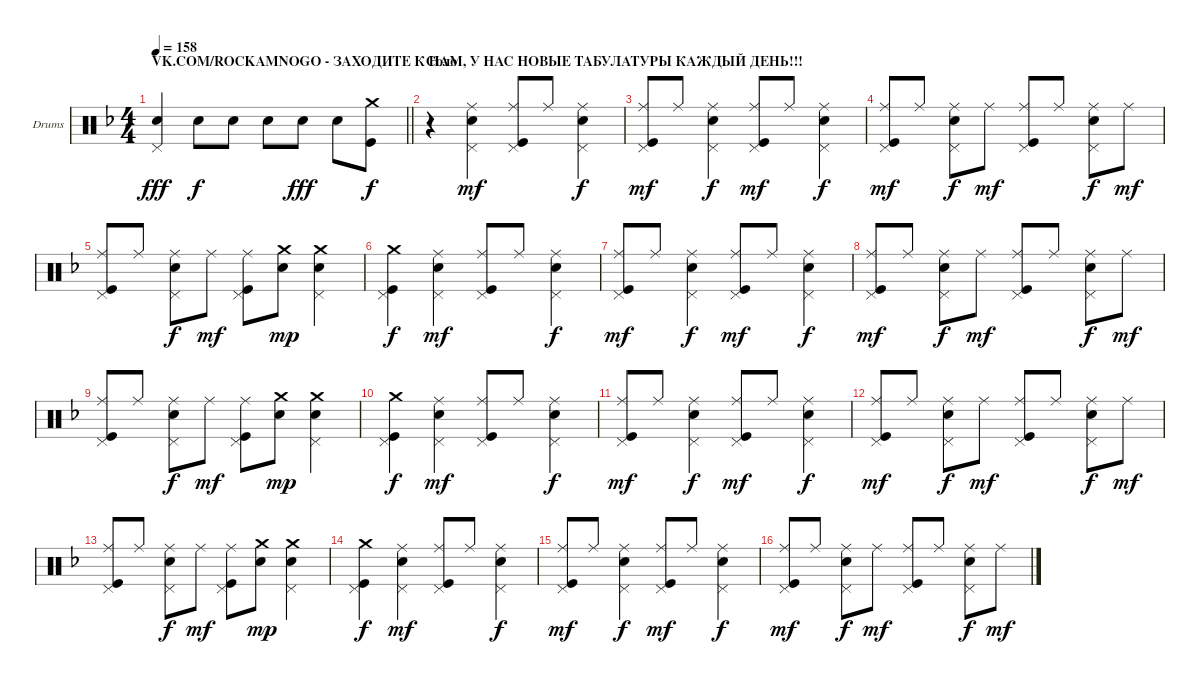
\bracketExtendMode groupsimilarinstruments
\firstSystemTrackNameOrientation horizontal
\otherSystemsTrackNameOrientation horizontal
\track ("Максим Удалов" "Drums") {instrument percussion}
\staff {score}
\articulation defaults
\ts (4 4)
\beaming (8 2 2 2 2)
\section ("" "VK.COM/ROCKAMNOGO - ЗАХОДИТЕ К НАМ, У НАС НОВЫЕ ТАБУЛАТУРЫ КАЖДЫЙ ДЕНЬ!!!")
\tempo 158
\clef neutral
\barLineRight lightlight
\ks dminor
("Snare (hit) 2" "Pedal Hi-Hat (hit)").4{dy fff} "Snare (hit) 2".8{dy f} "Snare (hit) 2".8 "Snare (hit) 2".8 "Snare (hit) 2".8{dy fff} "Snare (hit) 2".8 ("Kick (hit)" "Crash medium (hit)").8{dy f} |
\section ("" "Соло")
r.4 ("Ride (middle)" "Snare (hit) 2" "Pedal Hi-Hat (hit)").4{dy mf} ("Ride (middle)" "Kick (hit)" "Pedal Hi-Hat (hit)").8 "Ride (middle)".8 ("Snare (hit) 2" "Pedal Hi-Hat (hit)" "Ride (middle)").4{dy f} |
("Ride (middle)" "Kick (hit)" "Pedal Hi-Hat (hit)").8{dy mf} "Ride (middle)".8 ("Snare (hit) 2" "Pedal Hi-Hat (hit)" "Ride (middle)").4{dy f} ("Ride (middle)" "Kick (hit)" "Pedal Hi-Hat (hit)").8{dy mf} "Ride (middle)".8 ("Snare (hit) 2" "Pedal Hi-Hat (hit)" "Ride (middle)").4{dy f} |
("Ride (middle)" "Kick (hit)" "Pedal Hi-Hat (hit)").8{dy mf} "Ride (middle)".8 ("Snare (hit) 2" "Pedal Hi-Hat (hit)" "Ride (middle)").8{dy f} "Ride (middle)".8{dy mf} ("Ride (middle)" "Kick (hit)" "Pedal Hi-Hat (hit)").8 "Ride (middle)".8 ("Snare (hit) 2" "Pedal Hi-Hat (hit)" "Ride (middle)").8{dy f} "Ride (middle)".8{dy mf} |
("Ride (middle)" "Kick (hit)" "Pedal Hi-Hat (hit)").8 "Ride (middle)".8 ("Snare (hit) 2" "Pedal Hi-Hat (hit)" "Ride (middle)").8{dy f} "Ride (middle)".8{dy mf} ("Ride (middle)" "Kick (hit)" "Pedal Hi-Hat (hit)").8 ("Crash medium (hit)" "Snare (hit) 2").8{dy mp} ("Crash medium (hit)" "Snare (hit) 2" "Pedal Hi-Hat (hit)").4 |
("Kick (hit)" "Crash medium (hit)" "Pedal Hi-Hat (hit)").4{dy f} ("Ride (middle)" "Snare (hit) 2" "Pedal Hi-Hat (hit)").4{dy mf} ("Ride (middle)" "Kick (hit)" "Pedal Hi-Hat (hit)").8 "Ride (middle)".8 ("Snare (hit) 2" "Pedal Hi-Hat (hit)" "Ride (middle)").4{dy f} |
("Ride (middle)" "Kick (hit)" "Pedal Hi-Hat (hit)").8{dy mf} "Ride (middle)".8 ("Snare (hit) 2" "Pedal Hi-Hat (hit)" "Ride (middle)").4{dy f} ("Ride (middle)" "Kick (hit)" "Pedal Hi-Hat (hit)").8{dy mf} "Ride (middle)".8 ("Snare (hit) 2" "Pedal Hi-Hat (hit)" "Ride (middle)").4{dy f} |
("Ride (middle)" "Kick (hit)" "Pedal Hi-Hat (hit)").8{dy mf} "Ride (middle)".8 ("Snare (hit) 2" "Pedal Hi-Hat (hit)" "Ride (middle)").8{dy f} "Ride (middle)".8{dy mf} ("Ride (middle)" "Kick (hit)" "Pedal Hi-Hat (hit)").8 "Ride (middle)".8 ("Snare (hit) 2" "Pedal Hi-Hat (hit)" "Ride (middle)").8{dy f} "Ride (middle)".8{dy mf} |
("Ride (middle)" "Kick (hit)" "Pedal Hi-Hat (hit)").8 "Ride (middle)".8 ("Snare (hit) 2" "Pedal Hi-Hat (hit)" "Ride (middle)").8{dy f} "Ride (middle)".8{dy mf} ("Ride (middle)" "Kick (hit)" "Pedal Hi-Hat (hit)").8 ("Crash medium (hit)" "Snare (hit) 2").8{dy mp} ("Crash medium (hit)" "Snare (hit) 2" "Pedal Hi-Hat (hit)").4 |
("Kick (hit)" "Crash medium (hit)" "Pedal Hi-Hat (hit)").4{dy f} ("Ride (middle)" "Snare (hit) 2" "Pedal Hi-Hat (hit)").4{dy mf} ("Ride (middle)" "Kick (hit)" "Pedal Hi-Hat (hit)").8 "Ride (middle)".8 ("Snare (hit) 2" "Pedal Hi-Hat (hit)" "Ride (middle)").4{dy f} |
("Ride (middle)" "Kick (hit)" "Pedal Hi-Hat (hit)").8{dy mf} "Ride (middle)".8 ("Snare (hit) 2" "Pedal Hi-Hat (hit)" "Ride (middle)").4{dy f} ("Ride (middle)" "Kick (hit)" "Pedal Hi-Hat (hit)").8{dy mf} "Ride (middle)".8 ("Snare (hit) 2" "Pedal Hi-Hat (hit)" "Ride (middle)").4{dy f} |
("Ride (middle)" "Kick (hit)" "Pedal Hi-Hat (hit)").8{dy mf} "Ride (middle)".8 ("Snare (hit) 2" "Pedal Hi-Hat (hit)" "Ride (middle)").8{dy f} "Ride (middle)".8{dy mf} ("Ride (middle)" "Kick (hit)" "Pedal Hi-Hat (hit)").8 "Ride (middle)".8 ("Snare (hit) 2" "Pedal Hi-Hat (hit)" "Ride (middle)").8{dy f} "Ride (middle)".8{dy mf} |
("Ride (middle)" "Kick (hit)" "Pedal Hi-Hat (hit)").8 "Ride (middle)".8 ("Snare (hit) 2" "Pedal Hi-Hat (hit)" "Ride (middle)").8{dy f} "Ride (middle)".8{dy mf} ("Ride (middle)" "Kick (hit)" "Pedal Hi-Hat (hit)").8 ("Crash medium (hit)" "Snare (hit) 2").8{dy mp} ("Crash medium (hit)" "Snare (hit) 2" "Pedal Hi-Hat (hit)").4 |
("Kick (hit)" "Crash medium (hit)" "Pedal Hi-Hat (hit)").4{dy f} ("Ride (middle)" "Snare (hit) 2" "Pedal Hi-Hat (hit)").4{dy mf} ("Ride (middle)" "Kick (hit)" "Pedal Hi-Hat (hit)").8 "Ride (middle)".8 ("Snare (hit) 2" "Pedal Hi-Hat (hit)" "Ride (middle)").4{dy f} |
("Ride (middle)" "Kick (hit)" "Pedal Hi-Hat (hit)").8{dy mf} "Ride (middle)".8 ("Snare (hit) 2" "Pedal Hi-Hat (hit)" "Ride (middle)").4{dy f} ("Ride (middle)" "Kick (hit)" "Pedal Hi-Hat (hit)").8{dy mf} "Ride (middle)".8 ("Snare (hit) 2" "Pedal Hi-Hat (hit)" "Ride (middle)").4{dy f} |
("Ride (middle)" "Kick (hit)" "Pedal Hi-Hat (hit)").8{dy mf} "Ride (middle)".8 ("Snare (hit) 2" "Pedal Hi-Hat (hit)" "Ride (middle)").8{dy f} "Ride (middle)".8{dy mf} ("Ride (middle)" "Kick (hit)" "Pedal Hi-Hat (hit)").8 "Ride (middle)".8 ("Snare (hit) 2" "Pedal Hi-Hat (hit)" "Ride (middle)").8{dy f} "Ride (middle)".8{dy mf}
